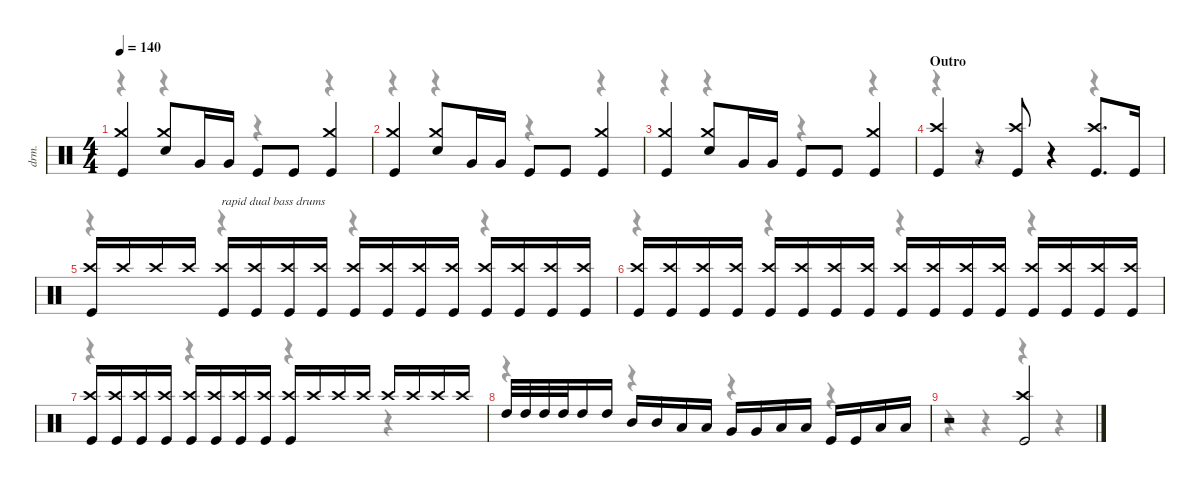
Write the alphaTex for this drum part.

\defaultSystemsLayout 4
\hideDynamics
\bracketExtendMode nobrackets
\otherSystemsTrackNameOrientation horizontal
\track ("Alex Van Halen (Drums)" "drm.") {instrument percussion}
\staff {score}
\articulation defaults
\voice
\ts (4 4)
\tempo 140
\clef neutral
\ks c
("Crash medium (hit)" "Kick (hit)").4{dy mf beam Up} ("Crash medium (hit)" "Snare (hit) 2").8{beam Up} "Very Low Tom (hit)".16{dy f beam Up} "Very Low Tom (hit)".16{beam Up} "Kick (hit)".8{beam Up} "Kick (hit)".8{beam Up} ("Crash medium (hit)" "Kick (hit)").4{dy mf beam Up} |
("Crash medium (hit)" "Kick (hit)").4{beam Up} ("Crash medium (hit)" "Snare (hit) 2").8{beam Up} "Very Low Tom (hit)".16{dy f beam Up} "Very Low Tom (hit)".16{beam Up} "Kick (hit)".8{beam Up} "Kick (hit)".8{beam Up} ("Crash medium (hit)" "Kick (hit)").4{dy mf beam Up} |
("Crash medium (hit)" "Kick (hit)").4{beam Up} ("Crash medium (hit)" "Snare (hit) 2").8{beam Up} "Very Low Tom (hit)".16{dy f beam Up} "Very Low Tom (hit)".16{beam Up} "Kick (hit)".8{beam Up} "Kick (hit)".8{beam Up} ("Crash medium (hit)" "Kick (hit)").4{dy mf beam Up} |
\section ("" "Outro")
("Crash high (hit)" "Kick (hit)").4{dy f beam Up} r.8{beam Up} ("Crash high (hit)" "Kick (hit)").8{beam Up} r.4{beam Up} ("Crash high (hit)" "Kick (hit)").8{d beam Up} "Kick (hit)".16{beam Up} |
("Crash high (hit)" "Kick (hit)").16{beam Up} "Crash high (hit)".16{beam Up} "Crash high (hit)".16{beam Up} "Crash high (hit)".16{beam Up} ("Crash high (hit)" "Kick (hit)").16{txt "rapid dual bass drums" beam Up} ("Crash high (hit)" "Kick (hit)").16{beam Up} ("Crash high (hit)" "Kick (hit)").16{beam Up} ("Crash high (hit)" "Kick (hit)").16{beam Up} ("Crash high (hit)" "Kick (hit)").16{beam Up} ("Crash high (hit)" "Kick (hit)").16{beam Up} ("Crash high (hit)" "Kick (hit)").16{beam Up} ("Crash high (hit)" "Kick (hit)").16{beam Up} ("Crash high (hit)" "Kick (hit)").16{beam Up} ("Crash high (hit)" "Kick (hit)").16{beam Up} ("Crash high (hit)" "Kick (hit)").16{beam Up} ("Crash high (hit)" "Kick (hit)").16{beam Up} |
("Crash high (hit)" "Kick (hit)").16{beam Up} ("Crash high (hit)" "Kick (hit)").16{beam Up} ("Crash high (hit)" "Kick (hit)").16{beam Up} ("Crash high (hit)" "Kick (hit)").16{beam Up} ("Crash high (hit)" "Kick (hit)").16{beam Up} ("Crash high (hit)" "Kick (hit)").16{beam Up} ("Crash high (hit)" "Kick (hit)").16{beam Up} ("Crash high (hit)" "Kick (hit)").16{beam Up} ("Crash high (hit)" "Kick (hit)").16{beam Up} ("Crash high (hit)" "Kick (hit)").16{beam Up} ("Crash high (hit)" "Kick (hit)").16{beam Up} ("Crash high (hit)" "Kick (hit)").16{beam Up} ("Crash high (hit)" "Kick (hit)").16{beam Up} ("Crash high (hit)" "Kick (hit)").16{beam Up} ("Crash high (hit)" "Kick (hit)").16{beam Up} ("Crash high (hit)" "Kick (hit)").16{beam Up} |
("Crash high (hit)" "Kick (hit)").16{beam Up} ("Crash high (hit)" "Kick (hit)").16{beam Up} ("Crash high (hit)" "Kick (hit)").16{beam Up} ("Crash high (hit)" "Kick (hit)").16{beam Up} ("Crash high (hit)" "Kick (hit)").16{beam Up} ("Crash high (hit)" "Kick (hit)").16{beam Up} ("Crash high (hit)" "Kick (hit)").16{beam Up} ("Crash high (hit)" "Kick (hit)").16{beam Up} ("Crash high (hit)" "Kick (hit)").16{beam Up} "Crash high (hit)".16{beam Up} "Crash high (hit)".16{beam Up} "Crash high (hit)".16{beam Up} "Crash high (hit)".16{beam Up} "Crash high (hit)".16{beam Up} "Crash high (hit)".16{beam Up} "Crash high (hit)".16{beam Up} |
"High Tom (hit)".32{beam Up} "High Tom (hit)".32{beam Up} "High Tom (hit)".32{beam Up} "High Tom (hit)".32{beam Up} "High Tom (hit)".16{beam Up} "High Tom (hit)".16{beam Up} "Mid Tom (hit)".16{beam Up} "Mid Tom (hit)".16{beam Up} "Low Tom (hit)".16{beam Up} "Low Tom (hit)".16{beam Up} "Very Low Tom (hit)".16{beam Up} "Very Low Tom (hit)".16{beam Up} "Low Floor Tom (hit)".16{beam Up} "Low Floor Tom (hit)".16{beam Up} "Kick (hit)".16{beam Up} "Kick (hit)".16{beam Up} "Low Floor Tom (hit)".16{beam Up} "Low Floor Tom (hit)".16{beam Up} |
r.2{beam Up} ("Crash high (hit)" "Kick (hit)").2{beam Up}
\voice
\clef neutral
\ottava regular
\simile none
\ks c
r.4{dy mf beam Down} r.4{beam Down} r.4{beam Down} r.4{beam Down} |
r.4{beam Down} r.4{beam Down} r.4{beam Down} r.4{beam Down} |
r.4{beam Down} r.4{beam Down} r.4{beam Down} r.4{beam Down} |
r.4{beam Down} r.4{beam Down} r.4{beam Down} r.4{beam Down} |
r.4{beam Down} r.4{beam Down} r.4{beam Down} r.4{beam Down} |
r.4{beam Down} r.4{beam Down} r.4{beam Down} r.4{beam Down} |
r.4{beam Down} r.4{beam Down} r.4{beam Down} r.4{beam Down} |
r.4{beam Down} r.4{beam Down} r.4{beam Down} r.4{beam Down} |
r.4{beam Down} r.4{beam Down} r.4{beam Down} r.4{beam Down}
